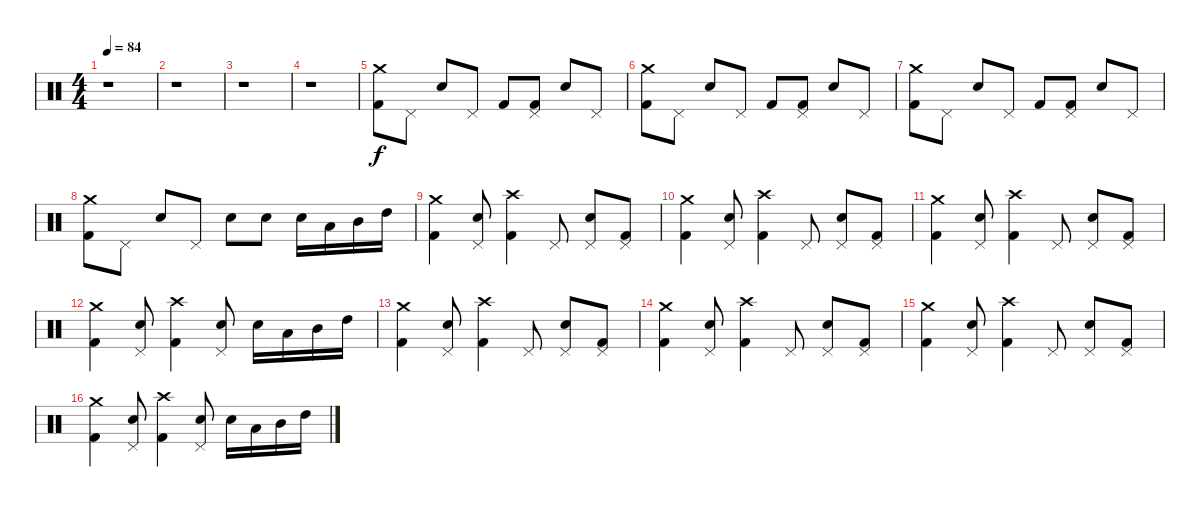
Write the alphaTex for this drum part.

\track "" {instrument percussion}
\staff {score}
\articulation defaults
\ts (4 4)
\tempo 84
\clef neutral
\ks c
r.1{dy f} |
r.1 |
r.1 |
r.1 |
("Crash medium (hit)" "Kick (hit) 2").8 "Pedal Hi-Hat (hit)".8 "Snare (hit) 2".8 "Pedal Hi-Hat (hit)".8 "Kick (hit) 2".8 ("Pedal Hi-Hat (hit)" "Kick (hit) 2").8 "Snare (hit) 2".8 "Pedal Hi-Hat (hit)".8 |
("Crash medium (hit)" "Kick (hit) 2").8 "Pedal Hi-Hat (hit)".8 "Snare (hit) 2".8 "Pedal Hi-Hat (hit)".8 "Kick (hit) 2".8 ("Pedal Hi-Hat (hit)" "Kick (hit) 2").8 "Snare (hit) 2".8 "Pedal Hi-Hat (hit)".8 |
("Crash medium (hit)" "Kick (hit) 2").8 "Pedal Hi-Hat (hit)".8 "Snare (hit) 2".8 "Pedal Hi-Hat (hit)".8{txt ""} "Kick (hit) 2".8 ("Pedal Hi-Hat (hit)" "Kick (hit) 2").8 "Snare (hit) 2".8 "Pedal Hi-Hat (hit)".8 |
("Crash medium (hit)" "Kick (hit) 2").8 "Pedal Hi-Hat (hit)".8 "Snare (hit) 2".8 "Pedal Hi-Hat (hit)".8 "Electric Snare (hit)".8 "Electric Snare (hit)".8 "Electric Snare (hit)".16 "Low Tom (hit)".16 "Mid Tom (hit)".16 "High Tom (hit)".16 |
("Crash medium (hit)" "Kick (hit) 2").4 ("Pedal Hi-Hat (hit)" "Snare (hit) 2").8 ("Crash high (hit)" "Kick (hit) 2").4 "Pedal Hi-Hat (hit)".8 ("Pedal Hi-Hat (hit)" "Snare (hit) 2").8 ("Pedal Hi-Hat (hit)" "Kick (hit) 2").8 |
("Crash medium (hit)" "Kick (hit) 2").4 ("Pedal Hi-Hat (hit)" "Snare (hit) 2").8 ("Crash high (hit)" "Kick (hit) 2").4 "Pedal Hi-Hat (hit)".8 ("Pedal Hi-Hat (hit)" "Snare (hit) 2").8 ("Pedal Hi-Hat (hit)" "Kick (hit) 2").8 |
("Crash medium (hit)" "Kick (hit) 2").4 ("Pedal Hi-Hat (hit)" "Snare (hit) 2").8 ("Crash high (hit)" "Kick (hit) 2").4 "Pedal Hi-Hat (hit)".8 ("Pedal Hi-Hat (hit)" "Snare (hit) 2").8 ("Pedal Hi-Hat (hit)" "Kick (hit) 2").8 |
("Crash medium (hit)" "Kick (hit) 2").4 ("Pedal Hi-Hat (hit)" "Snare (hit) 2").8 ("Crash high (hit)" "Kick (hit) 2").4 ("Pedal Hi-Hat (hit)" "Snare (hit) 2").8 "Snare (hit) 2".16 "Low Tom (hit)".16 "Mid Tom (hit)".16 "High Tom (hit)".16 |
("Crash medium (hit)" "Kick (hit) 2").4 ("Pedal Hi-Hat (hit)" "Snare (hit) 2").8 ("Crash high (hit)" "Kick (hit) 2").4 "Pedal Hi-Hat (hit)".8 ("Pedal Hi-Hat (hit)" "Snare (hit) 2").8 ("Pedal Hi-Hat (hit)" "Kick (hit) 2").8 |
("Crash medium (hit)" "Kick (hit) 2").4 ("Pedal Hi-Hat (hit)" "Snare (hit) 2").8 ("Crash high (hit)" "Kick (hit) 2").4 "Pedal Hi-Hat (hit)".8 ("Pedal Hi-Hat (hit)" "Snare (hit) 2").8 ("Pedal Hi-Hat (hit)" "Kick (hit) 2").8 |
("Crash medium (hit)" "Kick (hit) 2").4 ("Pedal Hi-Hat (hit)" "Snare (hit) 2").8 ("Crash high (hit)" "Kick (hit) 2").4 "Pedal Hi-Hat (hit)".8 ("Pedal Hi-Hat (hit)" "Snare (hit) 2").8 ("Pedal Hi-Hat (hit)" "Kick (hit) 2").8 |
("Crash medium (hit)" "Kick (hit) 2").4 ("Pedal Hi-Hat (hit)" "Snare (hit) 2").8 ("Crash high (hit)" "Kick (hit) 2").4 ("Pedal Hi-Hat (hit)" "Snare (hit) 2").8 "Snare (hit) 2".16 "Low Tom (hit)".16 "Mid Tom (hit)".16 "High Tom (hit)".16
